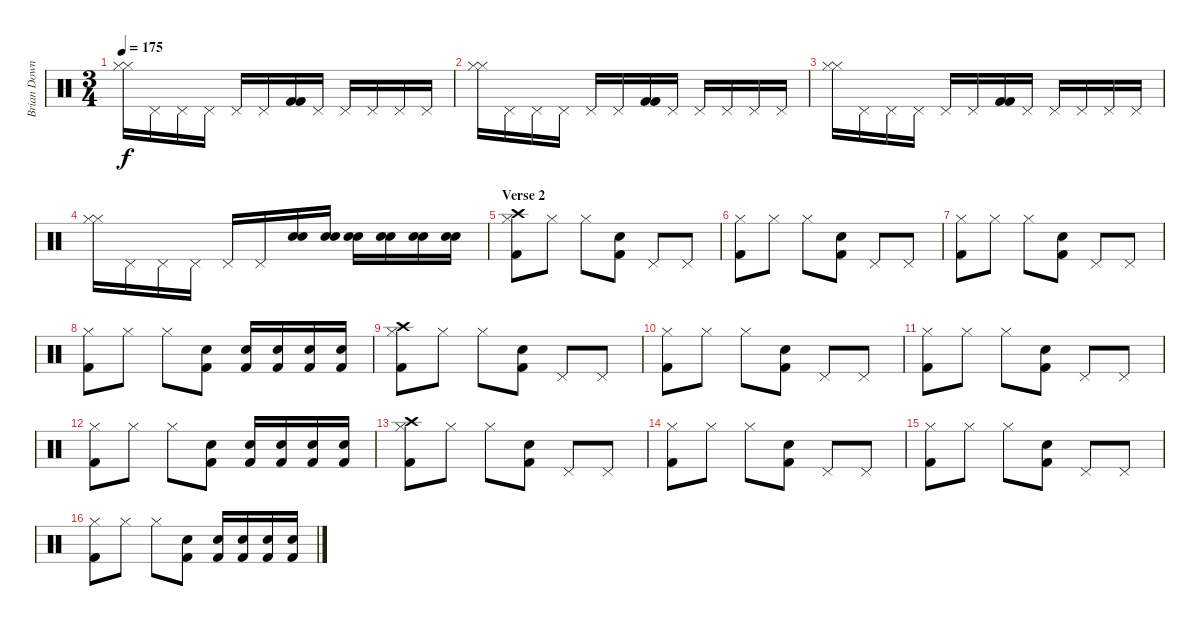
\track ("Brian Downey" "Brian Down") {instrument percussion}
\staff {score}
\articulation defaults
\ts (3 4)
\tempo 175
\clef neutral
\ks c
("Hi-Hat (closed)" "Hi-Hat (closed)").16{dy f} "Pedal Hi-Hat (hit)".16 "Pedal Hi-Hat (hit)".16 "Pedal Hi-Hat (hit)".16 "Pedal Hi-Hat (hit)".16 "Pedal Hi-Hat (hit)".16 ("Kick (hit) 2" "Kick (hit) 2").16 "Pedal Hi-Hat (hit)".16 "Pedal Hi-Hat (hit)".16 "Pedal Hi-Hat (hit)".16 "Pedal Hi-Hat (hit)".16 "Pedal Hi-Hat (hit)".16 |
("Hi-Hat (closed)" "Hi-Hat (closed)").16 "Pedal Hi-Hat (hit)".16 "Pedal Hi-Hat (hit)".16 "Pedal Hi-Hat (hit)".16 "Pedal Hi-Hat (hit)".16 "Pedal Hi-Hat (hit)".16 ("Kick (hit) 2" "Kick (hit) 2").16 "Pedal Hi-Hat (hit)".16 "Pedal Hi-Hat (hit)".16 "Pedal Hi-Hat (hit)".16 "Pedal Hi-Hat (hit)".16 "Pedal Hi-Hat (hit)".16 |
("Hi-Hat (closed)" "Hi-Hat (closed)").16 "Pedal Hi-Hat (hit)".16 "Pedal Hi-Hat (hit)".16 "Pedal Hi-Hat (hit)".16 "Pedal Hi-Hat (hit)".16 "Pedal Hi-Hat (hit)".16 ("Kick (hit) 2" "Kick (hit) 2").16 "Pedal Hi-Hat (hit)".16 "Pedal Hi-Hat (hit)".16 "Pedal Hi-Hat (hit)".16 "Pedal Hi-Hat (hit)".16 "Pedal Hi-Hat (hit)".16 |
("Hi-Hat (closed)" "Hi-Hat (closed)").16 "Pedal Hi-Hat (hit)".16 "Pedal Hi-Hat (hit)".16 "Pedal Hi-Hat (hit)".16 "Pedal Hi-Hat (hit)".16 "Pedal Hi-Hat (hit)".16 ("Snare (hit) 2" "Snare (hit) 2").16 ("Snare (hit) 2" "Snare (hit) 2").16 ("Snare (hit) 2" "Snare (hit) 2").16 ("Electric Snare (hit)" "Electric Snare (hit)").16 ("Electric Snare (hit)" "Electric Snare (hit)").16 ("Electric Snare (hit)" "Electric Snare (hit)").16 |
\section ("" "Verse 2")
("Crash high (hit)" "Hi-Hat (closed)" "Kick (hit) 2").8 "Hi-Hat (closed)".8 "Hi-Hat (closed)".8 ("Snare (hit) 2" "Kick (hit) 2").8 "Pedal Hi-Hat (hit)".8 "Pedal Hi-Hat (hit)".8 |
("Hi-Hat (closed)" "Kick (hit) 2").8 "Hi-Hat (closed)".8 "Hi-Hat (closed)".8 ("Snare (hit) 2" "Kick (hit) 2").8 "Pedal Hi-Hat (hit)".8 "Pedal Hi-Hat (hit)".8 |
("Hi-Hat (closed)" "Kick (hit) 2").8 "Hi-Hat (closed)".8 "Hi-Hat (closed)".8 ("Snare (hit) 2" "Kick (hit) 2").8 "Pedal Hi-Hat (hit)".8 "Pedal Hi-Hat (hit)".8 |
("Hi-Hat (closed)" "Kick (hit) 2").8 "Hi-Hat (closed)".8 "Hi-Hat (closed)".8 ("Snare (hit) 2" "Kick (hit) 2").8 ("Snare (hit) 2" "Kick (hit) 2").16 ("Snare (hit) 2" "Kick (hit) 2").16 ("Snare (hit) 2" "Kick (hit) 2").16 ("Snare (hit) 2" "Kick (hit) 2").16 |
("Crash high (hit)" "Hi-Hat (closed)" "Kick (hit) 2").8 "Hi-Hat (closed)".8 "Hi-Hat (closed)".8 ("Snare (hit) 2" "Kick (hit) 2").8 "Pedal Hi-Hat (hit)".8 "Pedal Hi-Hat (hit)".8 |
("Hi-Hat (closed)" "Kick (hit) 2").8 "Hi-Hat (closed)".8 "Hi-Hat (closed)".8 ("Snare (hit) 2" "Kick (hit) 2").8 "Pedal Hi-Hat (hit)".8 "Pedal Hi-Hat (hit)".8 |
("Hi-Hat (closed)" "Kick (hit) 2").8 "Hi-Hat (closed)".8 "Hi-Hat (closed)".8 ("Snare (hit) 2" "Kick (hit) 2").8 "Pedal Hi-Hat (hit)".8 "Pedal Hi-Hat (hit)".8 |
("Hi-Hat (closed)" "Kick (hit) 2").8 "Hi-Hat (closed)".8 "Hi-Hat (closed)".8 ("Snare (hit) 2" "Kick (hit) 2").8 ("Snare (hit) 2" "Kick (hit) 2").16 ("Snare (hit) 2" "Kick (hit) 2").16 ("Snare (hit) 2" "Kick (hit) 2").16 ("Snare (hit) 2" "Kick (hit) 2").16 |
("Crash high (hit)" "Hi-Hat (closed)" "Kick (hit) 2").8 "Hi-Hat (closed)".8 "Hi-Hat (closed)".8 ("Snare (hit) 2" "Kick (hit) 2").8 "Pedal Hi-Hat (hit)".8 "Pedal Hi-Hat (hit)".8 |
("Hi-Hat (closed)" "Kick (hit) 2").8 "Hi-Hat (closed)".8 "Hi-Hat (closed)".8 ("Snare (hit) 2" "Kick (hit) 2").8 "Pedal Hi-Hat (hit)".8 "Pedal Hi-Hat (hit)".8 |
("Hi-Hat (closed)" "Kick (hit) 2").8 "Hi-Hat (closed)".8 "Hi-Hat (closed)".8 ("Snare (hit) 2" "Kick (hit) 2").8 "Pedal Hi-Hat (hit)".8 "Pedal Hi-Hat (hit)".8 |
("Hi-Hat (closed)" "Kick (hit) 2").8 "Hi-Hat (closed)".8 "Hi-Hat (closed)".8 ("Snare (hit) 2" "Kick (hit) 2").8 ("Snare (hit) 2" "Kick (hit) 2").16 ("Snare (hit) 2" "Kick (hit) 2").16 ("Snare (hit) 2" "Kick (hit) 2").16 ("Snare (hit) 2" "Kick (hit) 2").16
